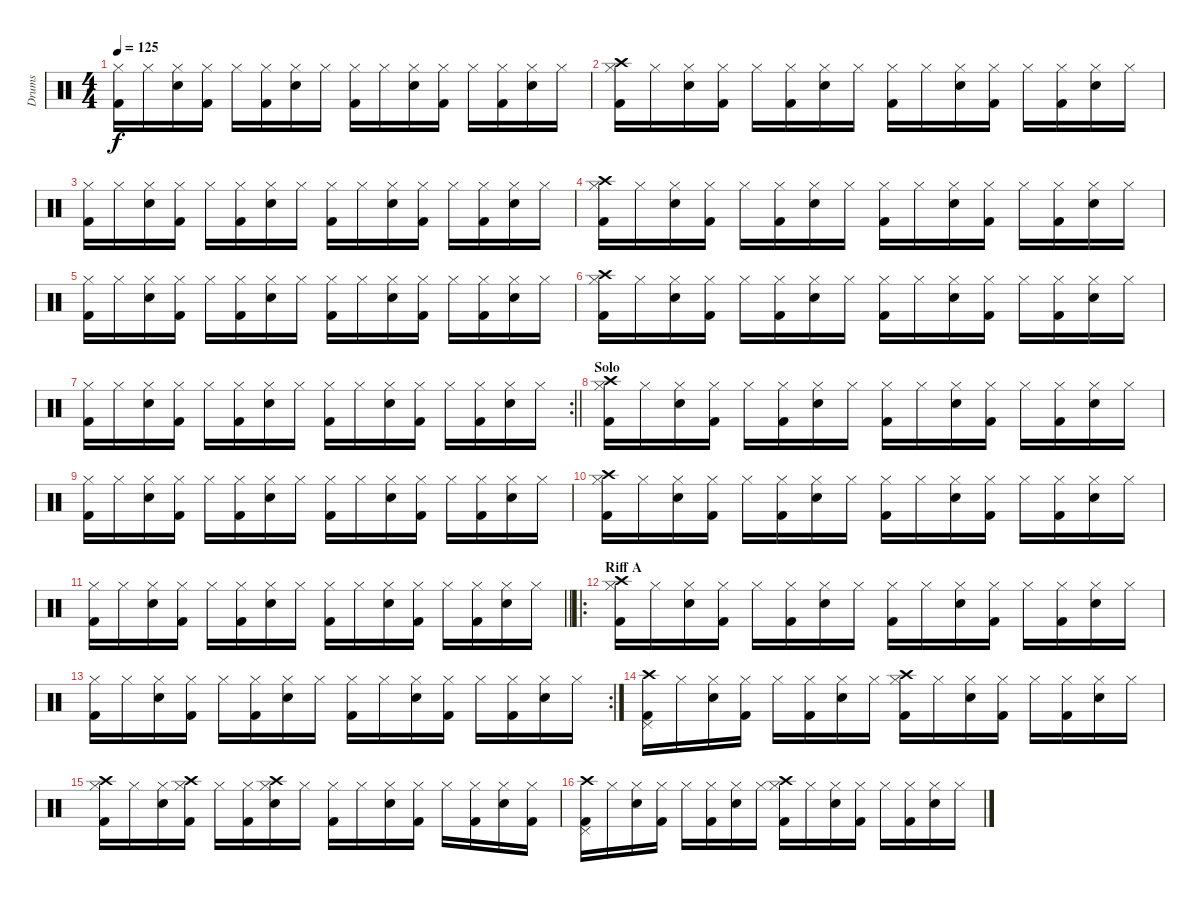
\track ("Drums" "Drums") {instrument percussion}
\staff {score}
\articulation defaults
\ts (4 4)
\tempo 125
\clef neutral
\ks c
("Kick (hit) 2" "Hi-Hat (closed)").16{dy f} "Hi-Hat (closed)".16 ("Snare (hit) 2" "Hi-Hat (closed)").16 ("Kick (hit) 2" "Hi-Hat (closed)").16 "Hi-Hat (closed)".16 ("Kick (hit) 2" "Hi-Hat (closed)").16 ("Snare (hit) 2" "Hi-Hat (closed)").16 "Hi-Hat (closed)".16 ("Kick (hit) 2" "Hi-Hat (closed)").16 "Hi-Hat (closed)".16 ("Snare (hit) 2" "Hi-Hat (closed)").16 ("Kick (hit) 2" "Hi-Hat (closed)").16 "Hi-Hat (closed)".16 ("Kick (hit) 2" "Hi-Hat (closed)").16 ("Snare (hit) 2" "Hi-Hat (closed)").16 "Hi-Hat (closed)".16 |
("Kick (hit) 2" "Hi-Hat (closed)" "Crash high (hit)").16 "Hi-Hat (closed)".16 ("Snare (hit) 2" "Hi-Hat (closed)").16 ("Kick (hit) 2" "Hi-Hat (closed)").16 "Hi-Hat (closed)".16 ("Kick (hit) 2" "Hi-Hat (closed)").16 ("Snare (hit) 2" "Hi-Hat (closed)").16 "Hi-Hat (closed)".16 ("Kick (hit) 2" "Hi-Hat (closed)").16 "Hi-Hat (closed)".16 ("Snare (hit) 2" "Hi-Hat (closed)").16 ("Kick (hit) 2" "Hi-Hat (closed)").16 "Hi-Hat (closed)".16 ("Kick (hit) 2" "Hi-Hat (closed)").16 ("Snare (hit) 2" "Hi-Hat (closed)").16 "Hi-Hat (closed)".16 |
("Kick (hit) 2" "Hi-Hat (closed)").16 "Hi-Hat (closed)".16 ("Snare (hit) 2" "Hi-Hat (closed)").16 ("Kick (hit) 2" "Hi-Hat (closed)").16 "Hi-Hat (closed)".16 ("Kick (hit) 2" "Hi-Hat (closed)").16 ("Snare (hit) 2" "Hi-Hat (closed)").16 "Hi-Hat (closed)".16 ("Kick (hit) 2" "Hi-Hat (closed)").16 "Hi-Hat (closed)".16 ("Snare (hit) 2" "Hi-Hat (closed)").16 ("Kick (hit) 2" "Hi-Hat (closed)").16 "Hi-Hat (closed)".16 ("Kick (hit) 2" "Hi-Hat (closed)").16 ("Snare (hit) 2" "Hi-Hat (closed)").16 "Hi-Hat (closed)".16 |
("Kick (hit) 2" "Hi-Hat (closed)" "Crash high (hit)").16 "Hi-Hat (closed)".16 ("Snare (hit) 2" "Hi-Hat (closed)").16 ("Kick (hit) 2" "Hi-Hat (closed)").16 "Hi-Hat (closed)".16 ("Kick (hit) 2" "Hi-Hat (closed)").16 ("Snare (hit) 2" "Hi-Hat (closed)").16 "Hi-Hat (closed)".16 ("Kick (hit) 2" "Hi-Hat (closed)").16 "Hi-Hat (closed)".16 ("Snare (hit) 2" "Hi-Hat (closed)").16 ("Kick (hit) 2" "Hi-Hat (closed)").16 "Hi-Hat (closed)".16 ("Kick (hit) 2" "Hi-Hat (closed)").16 ("Snare (hit) 2" "Hi-Hat (closed)").16 "Hi-Hat (closed)".16 |
("Kick (hit) 2" "Hi-Hat (closed)").16 "Hi-Hat (closed)".16 ("Snare (hit) 2" "Hi-Hat (closed)").16 ("Kick (hit) 2" "Hi-Hat (closed)").16 "Hi-Hat (closed)".16 ("Kick (hit) 2" "Hi-Hat (closed)").16 ("Snare (hit) 2" "Hi-Hat (closed)").16 "Hi-Hat (closed)".16 ("Kick (hit) 2" "Hi-Hat (closed)").16 "Hi-Hat (closed)".16 ("Snare (hit) 2" "Hi-Hat (closed)").16 ("Kick (hit) 2" "Hi-Hat (closed)").16 "Hi-Hat (closed)".16 ("Kick (hit) 2" "Hi-Hat (closed)").16 ("Snare (hit) 2" "Hi-Hat (closed)").16 "Hi-Hat (closed)".16 |
("Kick (hit) 2" "Hi-Hat (closed)" "Crash high (hit)").16 "Hi-Hat (closed)".16 ("Snare (hit) 2" "Hi-Hat (closed)").16 ("Kick (hit) 2" "Hi-Hat (closed)").16 "Hi-Hat (closed)".16 ("Kick (hit) 2" "Hi-Hat (closed)").16 ("Snare (hit) 2" "Hi-Hat (closed)").16 "Hi-Hat (closed)".16 ("Kick (hit) 2" "Hi-Hat (closed)").16 "Hi-Hat (closed)".16 ("Snare (hit) 2" "Hi-Hat (closed)").16 ("Kick (hit) 2" "Hi-Hat (closed)").16 "Hi-Hat (closed)".16 ("Kick (hit) 2" "Hi-Hat (closed)").16 ("Snare (hit) 2" "Hi-Hat (closed)").16 "Hi-Hat (closed)".16 |
\rc 2
\barLineRight lightlight
("Kick (hit) 2" "Hi-Hat (closed)").16 "Hi-Hat (closed)".16 ("Snare (hit) 2" "Hi-Hat (closed)").16 ("Kick (hit) 2" "Hi-Hat (closed)").16 "Hi-Hat (closed)".16 ("Kick (hit) 2" "Hi-Hat (closed)").16 ("Snare (hit) 2" "Hi-Hat (closed)").16 "Hi-Hat (closed)".16 ("Kick (hit) 2" "Hi-Hat (closed)").16 "Hi-Hat (closed)".16 ("Snare (hit) 2" "Hi-Hat (closed)").16 ("Kick (hit) 2" "Hi-Hat (closed)").16 "Hi-Hat (closed)".16 ("Kick (hit) 2" "Hi-Hat (closed)").16 ("Snare (hit) 2" "Hi-Hat (closed)").16 "Hi-Hat (closed)".16 |
\section ("" "Solo")
("Kick (hit) 2" "Hi-Hat (closed)" "Crash high (hit)").16 "Hi-Hat (closed)".16 ("Snare (hit) 2" "Hi-Hat (closed)").16 ("Kick (hit) 2" "Hi-Hat (closed)").16 "Hi-Hat (closed)".16 ("Kick (hit) 2" "Hi-Hat (closed)").16 ("Snare (hit) 2" "Hi-Hat (closed)").16 "Hi-Hat (closed)".16 ("Kick (hit) 2" "Hi-Hat (closed)").16 "Hi-Hat (closed)".16 ("Snare (hit) 2" "Hi-Hat (closed)").16 ("Kick (hit) 2" "Hi-Hat (closed)").16 "Hi-Hat (closed)".16 ("Kick (hit) 2" "Hi-Hat (closed)").16 ("Snare (hit) 2" "Hi-Hat (closed)").16 "Hi-Hat (closed)".16 |
("Kick (hit) 2" "Hi-Hat (closed)").16 "Hi-Hat (closed)".16 ("Snare (hit) 2" "Hi-Hat (closed)").16 ("Kick (hit) 2" "Hi-Hat (closed)").16 "Hi-Hat (closed)".16 ("Kick (hit) 2" "Hi-Hat (closed)").16 ("Snare (hit) 2" "Hi-Hat (closed)").16 "Hi-Hat (closed)".16 ("Kick (hit) 2" "Hi-Hat (closed)").16 "Hi-Hat (closed)".16 ("Snare (hit) 2" "Hi-Hat (closed)").16 ("Kick (hit) 2" "Hi-Hat (closed)").16 "Hi-Hat (closed)".16 ("Kick (hit) 2" "Hi-Hat (closed)").16 ("Snare (hit) 2" "Hi-Hat (closed)").16 "Hi-Hat (closed)".16 |
("Kick (hit) 2" "Hi-Hat (closed)" "Crash high (hit)").16 "Hi-Hat (closed)".16 ("Snare (hit) 2" "Hi-Hat (closed)").16 ("Kick (hit) 2" "Hi-Hat (closed)").16 "Hi-Hat (closed)".16 ("Kick (hit) 2" "Hi-Hat (closed)").16 ("Snare (hit) 2" "Hi-Hat (closed)").16 "Hi-Hat (closed)".16 ("Kick (hit) 2" "Hi-Hat (closed)").16 "Hi-Hat (closed)".16 ("Snare (hit) 2" "Hi-Hat (closed)").16 ("Kick (hit) 2" "Hi-Hat (closed)").16 "Hi-Hat (closed)".16 ("Kick (hit) 2" "Hi-Hat (closed)").16 ("Snare (hit) 2" "Hi-Hat (closed)").16 "Hi-Hat (closed)".16 |
\barLineRight lightlight
("Kick (hit) 2" "Hi-Hat (closed)").16 "Hi-Hat (closed)".16 ("Snare (hit) 2" "Hi-Hat (closed)").16 ("Kick (hit) 2" "Hi-Hat (closed)").16 "Hi-Hat (closed)".16 ("Kick (hit) 2" "Hi-Hat (closed)").16 ("Snare (hit) 2" "Hi-Hat (closed)").16 "Hi-Hat (closed)".16 ("Kick (hit) 2" "Hi-Hat (closed)").16 "Hi-Hat (closed)".16 ("Snare (hit) 2" "Hi-Hat (closed)").16 ("Kick (hit) 2" "Hi-Hat (closed)").16 "Hi-Hat (closed)".16 ("Kick (hit) 2" "Hi-Hat (closed)").16 ("Snare (hit) 2" "Hi-Hat (closed)").16 "Hi-Hat (closed)".16 |
\ro
\section ("" "Riff A")
("Kick (hit) 2" "Hi-Hat (closed)" "Crash high (hit)").16 "Hi-Hat (closed)".16 ("Snare (hit) 2" "Hi-Hat (closed)").16 ("Kick (hit) 2" "Hi-Hat (closed)").16 "Hi-Hat (closed)".16 ("Kick (hit) 2" "Hi-Hat (closed)").16 ("Snare (hit) 2" "Hi-Hat (closed)").16 "Hi-Hat (closed)".16 ("Kick (hit) 2" "Hi-Hat (closed)").16 "Hi-Hat (closed)".16 ("Snare (hit) 2" "Hi-Hat (closed)").16 ("Kick (hit) 2" "Hi-Hat (closed)").16 "Hi-Hat (closed)".16 ("Kick (hit) 2" "Hi-Hat (closed)").16 ("Snare (hit) 2" "Hi-Hat (closed)").16 "Hi-Hat (closed)".16 |
\rc 2
("Kick (hit) 2" "Hi-Hat (closed)").16 "Hi-Hat (closed)".16 ("Snare (hit) 2" "Hi-Hat (closed)").16 ("Kick (hit) 2" "Hi-Hat (closed)").16 "Hi-Hat (closed)".16 ("Kick (hit) 2" "Hi-Hat (closed)").16 ("Snare (hit) 2" "Hi-Hat (closed)").16 "Hi-Hat (closed)".16 ("Kick (hit) 2" "Hi-Hat (closed)").16 "Hi-Hat (closed)".16 ("Snare (hit) 2" "Hi-Hat (closed)").16 ("Kick (hit) 2" "Hi-Hat (closed)").16 "Hi-Hat (closed)".16 ("Kick (hit) 2" "Hi-Hat (closed)").16 ("Snare (hit) 2" "Hi-Hat (closed)").16 "Hi-Hat (closed)".16 |
("Kick (hit) 2" "Pedal Hi-Hat (hit)" "Crash high (hit)").16 "Hi-Hat (closed)".16 ("Snare (hit) 2" "Hi-Hat (closed)").16 ("Kick (hit) 2" "Hi-Hat (closed)").16 "Hi-Hat (closed)".16 ("Kick (hit) 2" "Hi-Hat (closed)").16 ("Snare (hit) 2" "Hi-Hat (closed)").16 "Hi-Hat (closed)".16 ("Kick (hit) 2" "Hi-Hat (closed)" "Crash high (hit)").16 "Hi-Hat (closed)".16 ("Snare (hit) 2" "Hi-Hat (closed)").16 ("Kick (hit) 2" "Hi-Hat (closed)").16 "Hi-Hat (closed)".16 ("Kick (hit) 2" "Hi-Hat (closed)").16 ("Snare (hit) 2" "Hi-Hat (closed)").16 "Hi-Hat (closed)".16 |
("Kick (hit) 2" "Hi-Hat (closed)" "Crash high (hit)").16 "Hi-Hat (closed)".16 ("Snare (hit) 2" "Hi-Hat (closed)").16 ("Kick (hit) 2" "Hi-Hat (closed)" "Crash high (hit)").16 "Hi-Hat (closed)".16 ("Kick (hit) 2" "Hi-Hat (closed)").16 ("Snare (hit) 2" "Hi-Hat (closed)" "Crash high (hit)").16 "Hi-Hat (closed)".16 ("Kick (hit) 2" "Hi-Hat (closed)").16 "Hi-Hat (closed)".16 ("Snare (hit) 2" "Hi-Hat (closed)").16 ("Kick (hit) 2" "Hi-Hat (closed)").16 "Hi-Hat (closed)".16 ("Kick (hit) 2" "Hi-Hat (closed)").16 ("Snare (hit) 2" "Hi-Hat (closed)").16 ("Kick (hit) 2" "Hi-Hat (closed)").16 |
("Kick (hit) 2" "Pedal Hi-Hat (hit)" "Crash high (hit)").16 "Hi-Hat (closed)".16 ("Snare (hit) 2" "Hi-Hat (closed)").16 ("Kick (hit) 2" "Hi-Hat (closed)").16 "Hi-Hat (closed)".16 ("Kick (hit) 2" "Hi-Hat (closed)").16 ("Snare (hit) 2" "Hi-Hat (closed)").16 "Hi-Hat (closed)".16 ("Kick (hit) 2" "Hi-Hat (closed)" "Crash high (hit)").16 "Hi-Hat (closed)".16 ("Snare (hit) 2" "Hi-Hat (closed)").16 ("Kick (hit) 2" "Hi-Hat (closed)").16 "Hi-Hat (closed)".16 ("Kick (hit) 2" "Hi-Hat (closed)").16 ("Snare (hit) 2" "Hi-Hat (closed)").16 "Hi-Hat (closed)".16
